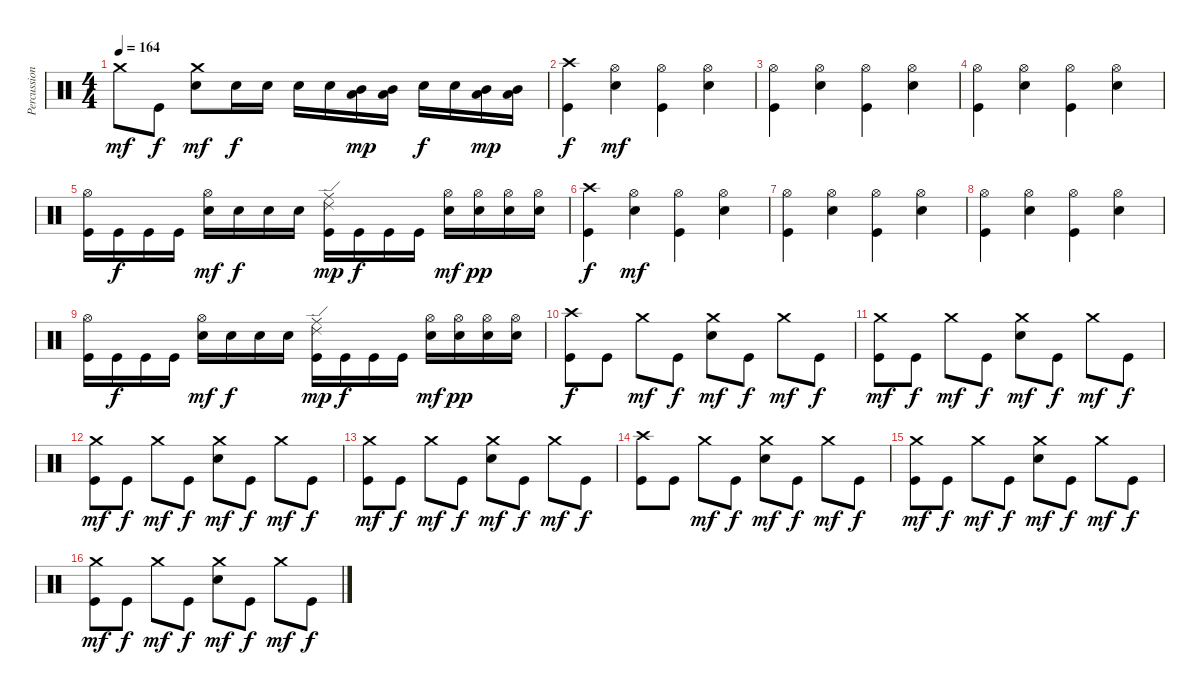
\track ("Percussion" "Percussion") {instrument percussion}
\staff {score}
\articulation defaults
\ts (4 4)
\tempo 164
\clef neutral
\ks c "Crash medium (hit)".8{dy mf} "Kick (hit)".8{dy f}
("Electric Snare (hit)" "Crash medium (hit)").8{dy mf} "Electric Snare (hit)".16{dy f} "Electric Snare (hit)".16 "Electric Snare (hit)".16 "Electric Snare (hit)".16 ("Mid Tom (hit)" "Low Tom (hit)").16{dy mp} ("Mid Tom (hit)" "Low Tom (hit)").16 "Electric Snare (hit)".16{dy f} "Electric Snare (hit)".16 ("Mid Tom (hit)" "Low Tom (hit)").16{dy mp} ("Mid Tom (hit)" "Low Tom (hit)").16 |
("Kick (hit)" "Crash high (hit)").4{dy f} ("Electric Snare (hit)" "Hi-Hat (open)").4{dy mf} ("Kick (hit)" "Hi-Hat (open)").4 ("Electric Snare (hit)" "Hi-Hat (open)").4 |
("Kick (hit)" "Hi-Hat (open)").4 ("Electric Snare (hit)" "Hi-Hat (open)").4 ("Kick (hit)" "Hi-Hat (open)").4 ("Electric Snare (hit)" "Hi-Hat (open)").4 |
("Kick (hit)" "Hi-Hat (open)").4 ("Electric Snare (hit)" "Hi-Hat (open)").4 ("Kick (hit)" "Hi-Hat (open)").4 ("Electric Snare (hit)" "Hi-Hat (open)").4 |
("Kick (hit)" "Hi-Hat (open)").16 "Kick (hit)".16{dy f} "Kick (hit)".16 "Kick (hit)".16 ("Electric Snare (hit)" "Hi-Hat (open)").16{dy mf} "Electric Snare (hit)".16{dy f} "Electric Snare (hit)".16 "Electric Snare (hit)".16 ("Kick (hit)" "Ride (edge) 2" "Ride (middle)").16{dy mp} "Kick (hit)".16{dy f} "Kick (hit)".16 "Kick (hit)".16 ("Electric Snare (hit)" "Hi-Hat (open)").16{dy mf} ("Electric Snare (hit)" "Hi-Hat (open)").16{dy pp} ("Electric Snare (hit)" "Hi-Hat (open)").16 ("Electric Snare (hit)" "Hi-Hat (open)").16 |
("Kick (hit)" "Crash high (hit)").4{dy f} ("Electric Snare (hit)" "Hi-Hat (open)").4{dy mf} ("Kick (hit)" "Hi-Hat (open)").4 ("Electric Snare (hit)" "Hi-Hat (open)").4 |
("Kick (hit)" "Hi-Hat (open)").4 ("Electric Snare (hit)" "Hi-Hat (open)").4 ("Kick (hit)" "Hi-Hat (open)").4 ("Electric Snare (hit)" "Hi-Hat (open)").4 |
("Kick (hit)" "Hi-Hat (open)").4 ("Electric Snare (hit)" "Hi-Hat (open)").4 ("Kick (hit)" "Hi-Hat (open)").4 ("Electric Snare (hit)" "Hi-Hat (open)").4 |
("Kick (hit)" "Hi-Hat (open)").16 "Kick (hit)".16{dy f} "Kick (hit)".16 "Kick (hit)".16 ("Electric Snare (hit)" "Hi-Hat (open)").16{dy mf} "Electric Snare (hit)".16{dy f} "Electric Snare (hit)".16 "Electric Snare (hit)".16 ("Kick (hit)" "Ride (edge) 2" "Ride (middle)").16{dy mp} "Kick (hit)".16{dy f} "Kick (hit)".16 "Kick (hit)".16 ("Electric Snare (hit)" "Hi-Hat (open)").16{dy mf} ("Electric Snare (hit)" "Hi-Hat (open)").16{dy pp} ("Electric Snare (hit)" "Hi-Hat (open)").16 ("Electric Snare (hit)" "Hi-Hat (open)").16 |
("Kick (hit)" "Crash high (hit)").8{dy f} "Kick (hit)".8 "Crash medium (hit)".8{dy mf} "Kick (hit)".8{dy f} ("Electric Snare (hit)" "Crash medium (hit)").8{dy mf} "Kick (hit)".8{dy f} "Crash medium (hit)".8{dy mf} "Kick (hit)".8{dy f} |
("Kick (hit)" "Crash medium (hit)").8{dy mf} "Kick (hit)".8{dy f} "Crash medium (hit)".8{dy mf} "Kick (hit)".8{dy f} ("Electric Snare (hit)" "Crash medium (hit)").8{dy mf} "Kick (hit)".8{dy f} "Crash medium (hit)".8{dy mf} "Kick (hit)".8{dy f} |
("Kick (hit)" "Crash medium (hit)").8{dy mf} "Kick (hit)".8{dy f} "Crash medium (hit)".8{dy mf} "Kick (hit)".8{dy f} ("Electric Snare (hit)" "Crash medium (hit)").8{dy mf} "Kick (hit)".8{dy f} "Crash medium (hit)".8{dy mf} "Kick (hit)".8{dy f} |
("Kick (hit)" "Crash medium (hit)").8{dy mf} "Kick (hit)".8{dy f} "Crash medium (hit)".8{dy mf} "Kick (hit)".8{dy f} ("Electric Snare (hit)" "Crash medium (hit)").8{dy mf} "Kick (hit)".8{dy f} "Crash medium (hit)".8{dy mf} "Kick (hit)".8{dy f} |
("Kick (hit)" "Crash high (hit)").8 "Kick (hit)".8 "Crash medium (hit)".8{dy mf} "Kick (hit)".8{dy f} ("Electric Snare (hit)" "Crash medium (hit)").8{dy mf} "Kick (hit)".8{dy f} "Crash medium (hit)".8{dy mf} "Kick (hit)".8{dy f} |
("Kick (hit)" "Crash medium (hit)").8{dy mf} "Kick (hit)".8{dy f} "Crash medium (hit)".8{dy mf} "Kick (hit)".8{dy f} ("Electric Snare (hit)" "Crash medium (hit)").8{dy mf} "Kick (hit)".8{dy f} "Crash medium (hit)".8{dy mf} "Kick (hit)".8{dy f} |
("Kick (hit)" "Crash medium (hit)").8{dy mf} "Kick (hit)".8{dy f} "Crash medium (hit)".8{dy mf} "Kick (hit)".8{dy f} ("Electric Snare (hit)" "Crash medium (hit)").8{dy mf} "Kick (hit)".8{dy f} "Crash medium (hit)".8{dy mf} "Kick (hit)".8{dy f}
